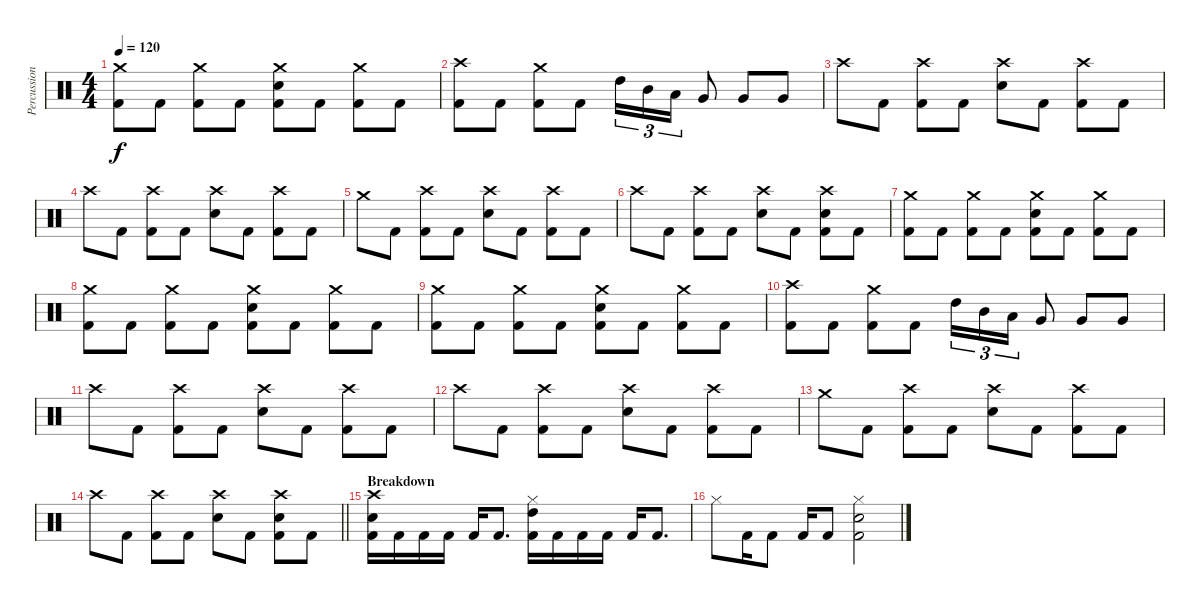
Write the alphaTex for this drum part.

\track ("Percussion" "Percussion") {instrument percussion}
\staff {score}
\articulation defaults
\ts (4 4)
\tempo 120
\clef neutral
\ks c
("Crash medium (hit)" "Kick (hit) 2").8{dy f} "Kick (hit) 2".8 ("Crash medium (hit)" "Kick (hit) 2").8 "Kick (hit) 2".8 ("Crash medium (hit)" "Snare (hit) 2" "Kick (hit) 2").8 "Kick (hit) 2".8 ("Crash medium (hit)" "Kick (hit) 2").8 "Kick (hit) 2".8 |
("Crash high (hit)" "Kick (hit) 2").8 "Kick (hit) 2".8 ("Crash medium (hit)" "Kick (hit) 2").8 "Kick (hit) 2".8 "High Tom (hit)".16{tu (3 2)} "Mid Tom (hit)".16{tu (3 2)} "Low Tom (hit)".16{tu (3 2)} "Very Low Tom (hit)".8 "Very Low Tom (hit)".8 "Very Low Tom (hit)".8 |
"Crash high (hit)".8 "Kick (hit) 2".8 ("Crash high (hit)" "Kick (hit) 2").8 "Kick (hit) 2".8 ("Crash high (hit)" "Snare (hit) 2").8 "Kick (hit) 2".8 ("Crash high (hit)" "Kick (hit) 2").8 "Kick (hit) 2".8 |
"Crash high (hit)".8 "Kick (hit) 2".8 ("Crash high (hit)" "Kick (hit) 2").8 "Kick (hit) 2".8 ("Crash high (hit)" "Snare (hit) 2").8 "Kick (hit) 2".8 ("Crash high (hit)" "Kick (hit) 2").8 "Kick (hit) 2".8 |
"Crash medium (hit)".8 "Kick (hit) 2".8 ("Crash high (hit)" "Kick (hit) 2").8 "Kick (hit) 2".8 ("Crash high (hit)" "Snare (hit) 2").8 "Kick (hit) 2".8 ("Crash high (hit)" "Kick (hit) 2").8 "Kick (hit) 2".8 |
"Crash high (hit)".8 "Kick (hit) 2".8 ("Crash high (hit)" "Kick (hit) 2").8 "Kick (hit) 2".8 ("Crash high (hit)" "Snare (hit) 2").8 "Kick (hit) 2".8 ("Crash high (hit)" "Snare (hit) 2" "Kick (hit) 2").8 "Kick (hit) 2".8 |
("Crash medium (hit)" "Kick (hit) 2").8 "Kick (hit) 2".8 ("Crash medium (hit)" "Kick (hit) 2").8 "Kick (hit) 2".8 ("Crash medium (hit)" "Snare (hit) 2" "Kick (hit) 2").8 "Kick (hit) 2".8 ("Crash medium (hit)" "Kick (hit) 2").8 "Kick (hit) 2".8 |
("Crash medium (hit)" "Kick (hit) 2").8 "Kick (hit) 2".8 ("Crash medium (hit)" "Kick (hit) 2").8 "Kick (hit) 2".8 ("Crash medium (hit)" "Snare (hit) 2" "Kick (hit) 2").8 "Kick (hit) 2".8 ("Crash medium (hit)" "Kick (hit) 2").8 "Kick (hit) 2".8 |
("Crash medium (hit)" "Kick (hit) 2").8 "Kick (hit) 2".8 ("Crash medium (hit)" "Kick (hit) 2").8 "Kick (hit) 2".8 ("Crash medium (hit)" "Snare (hit) 2" "Kick (hit) 2").8 "Kick (hit) 2".8 ("Crash medium (hit)" "Kick (hit) 2").8 "Kick (hit) 2".8 |
("Crash high (hit)" "Kick (hit) 2").8 "Kick (hit) 2".8 ("Crash medium (hit)" "Kick (hit) 2").8 "Kick (hit) 2".8 "High Tom (hit)".16{tu (3 2)} "Mid Tom (hit)".16{tu (3 2)} "Low Tom (hit)".16{tu (3 2)} "Very Low Tom (hit)".8 "Very Low Tom (hit)".8 "Very Low Tom (hit)".8 |
"Crash high (hit)".8 "Kick (hit) 2".8 ("Crash high (hit)" "Kick (hit) 2").8 "Kick (hit) 2".8 ("Crash high (hit)" "Snare (hit) 2").8 "Kick (hit) 2".8 ("Crash high (hit)" "Kick (hit) 2").8 "Kick (hit) 2".8 |
"Crash high (hit)".8 "Kick (hit) 2".8 ("Crash high (hit)" "Kick (hit) 2").8 "Kick (hit) 2".8 ("Crash high (hit)" "Snare (hit) 2").8 "Kick (hit) 2".8 ("Crash high (hit)" "Kick (hit) 2").8 "Kick (hit) 2".8 |
"Crash medium (hit)".8 "Kick (hit) 2".8 ("Crash high (hit)" "Kick (hit) 2").8 "Kick (hit) 2".8 ("Crash high (hit)" "Snare (hit) 2").8 "Kick (hit) 2".8 ("Crash high (hit)" "Kick (hit) 2").8 "Kick (hit) 2".8 |
\barLineRight lightlight "Crash high (hit)".8 "Kick (hit) 2".8
("Crash high (hit)" "Kick (hit) 2").8 "Kick (hit) 2".8 ("Crash high (hit)" "Snare (hit) 2").8 "Kick (hit) 2".8 ("Crash high (hit)" "Snare (hit) 2" "Kick (hit) 2").8 "Kick (hit) 2".8 |
\section ("" "Breakdown")
("Crash high (hit)" "Snare (hit) 2" "Kick (hit) 2").16 "Kick (hit) 2".16 "Kick (hit) 2".16 "Kick (hit) 2".16 "Kick (hit) 2".16 "Kick (hit) 2".8{d} ("Hi-Hat (closed)" "High Tom (hit)" "Kick (hit) 2").16 "Kick (hit) 2".16 "Kick (hit) 2".16 "Kick (hit) 2".16 "Kick (hit) 2".16 "Kick (hit) 2".8{d} |
"Hi-Hat (closed)".8 "Kick (hit) 2".16 "Kick (hit) 2".8 "Kick (hit) 2".16 "Kick (hit) 2".8 ("Hi-Hat (closed)" "Snare (hit) 2" "Kick (hit) 2").2
